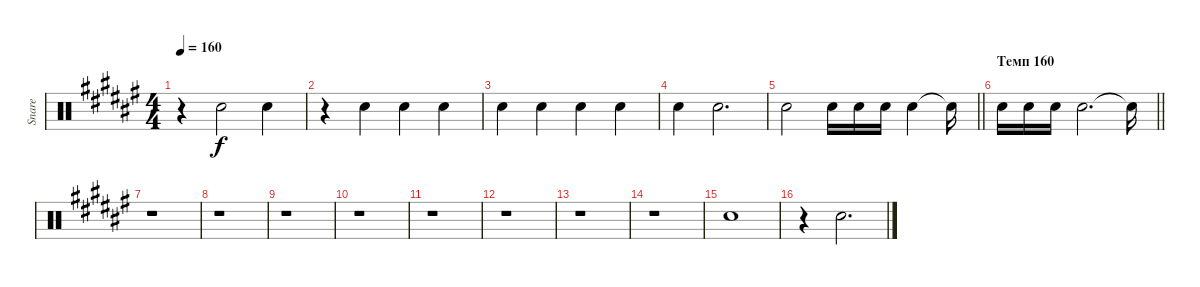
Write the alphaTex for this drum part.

\track ("Snare" "Snare") {instrument percussion}
\staff {score}
\articulation defaults
\ts (4 4)
\tempo 160
\clef neutral
\ks d#minor
r.4{dy f} "Electric Snare (hit)".2 "Electric Snare (hit)".4 |
r.4 "Electric Snare (hit)".4 "Electric Snare (hit)".4 "Electric Snare (hit)".4 |
"Electric Snare (hit)".4 "Electric Snare (hit)".4 "Electric Snare (hit)".4 "Electric Snare (hit)".4 |
"Electric Snare (hit)".4 "Electric Snare (hit)".2{d} |
\barLineRight lightlight "Electric Snare (hit)".2 "Electric Snare (hit)".16 "Electric Snare (hit)".16 "Electric Snare (hit)".16 "Electric Snare (hit)".4 "Electric Snare (hit)"{t}.16
|
\section ("" "Темп 160")
\barLineRight lightlight "Electric Snare (hit)".16 "Electric Snare (hit)".16 "Electric Snare (hit)".16 "Electric Snare (hit)".2{d} "Electric Snare (hit)"{t}.16
|
r.1 |
r.1 |
r.1 |
r.1 |
r.1 |
r.1 |
r.1 |
r.1 |
"Electric Snare (hit)".1 |
r.4 "Electric Snare (hit)".2{d}
